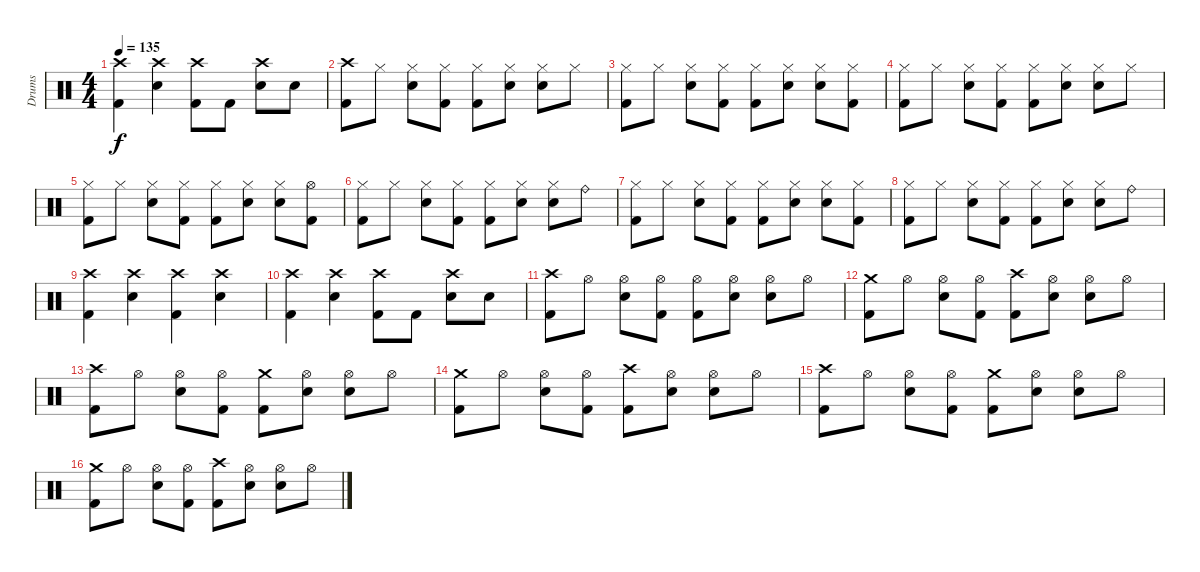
\track ("Drums" "Drums") {instrument percussion}
\staff {score}
\articulation defaults
\ts (4 4)
\tempo 135
\clef neutral
\ks c
("Crash high (hit)" "Kick (hit) 2").4{dy f} ("Crash high (hit)" "Snare (hit) 2").4 ("Crash high (hit)" "Kick (hit) 2").8 "Kick (hit) 2".8 ("Crash high (hit)" "Snare (hit) 2").8 "Snare (hit) 2".8 |
("Crash high (hit)" "Kick (hit) 2").8 "Hi-Hat (closed)".8 ("Hi-Hat (closed)" "Snare (hit) 2").8 ("Hi-Hat (closed)" "Kick (hit) 2").8 ("Hi-Hat (closed)" "Kick (hit) 2").8 ("Hi-Hat (closed)" "Snare (hit) 2").8 ("Hi-Hat (closed)" "Snare (hit) 2").8 "Hi-Hat (closed)".8 |
("Hi-Hat (closed)" "Kick (hit) 2").8 "Hi-Hat (closed)".8 ("Hi-Hat (closed)" "Snare (hit) 2").8 ("Hi-Hat (closed)" "Kick (hit) 2").8 ("Hi-Hat (closed)" "Kick (hit) 2").8 ("Hi-Hat (closed)" "Snare (hit) 2").8 ("Hi-Hat (closed)" "Snare (hit) 2").8 ("Hi-Hat (closed)" "Kick (hit) 2").8 |
("Hi-Hat (closed)" "Kick (hit) 2").8 "Hi-Hat (closed)".8 ("Hi-Hat (closed)" "Snare (hit) 2").8 ("Hi-Hat (closed)" "Kick (hit) 2").8 ("Hi-Hat (closed)" "Kick (hit) 2").8 ("Hi-Hat (closed)" "Snare (hit) 2").8 ("Hi-Hat (closed)" "Snare (hit) 2").8 "Hi-Hat (closed)".8 |
("Hi-Hat (closed)" "Kick (hit) 2").8 "Hi-Hat (closed)".8 ("Hi-Hat (closed)" "Snare (hit) 2").8 ("Hi-Hat (closed)" "Kick (hit) 2").8 ("Hi-Hat (closed)" "Kick (hit) 2").8 ("Hi-Hat (closed)" "Snare (hit) 2").8 ("Hi-Hat (closed)" "Snare (hit) 2").8 ("Hi-Hat (open)" "Kick (hit) 2").8 |
("Hi-Hat (closed)" "Kick (hit) 2").8 "Hi-Hat (closed)".8 ("Hi-Hat (closed)" "Snare (hit) 2").8 ("Hi-Hat (closed)" "Kick (hit) 2").8 ("Hi-Hat (closed)" "Kick (hit) 2").8 ("Hi-Hat (closed)" "Snare (hit) 2").8 ("Hi-Hat (closed)" "Snare (hit) 2").8 "Ride (bell)".8 |
("Hi-Hat (closed)" "Kick (hit) 2").8 "Hi-Hat (closed)".8 ("Hi-Hat (closed)" "Snare (hit) 2").8 ("Hi-Hat (closed)" "Kick (hit) 2").8 ("Hi-Hat (closed)" "Kick (hit) 2").8 ("Hi-Hat (closed)" "Snare (hit) 2").8 ("Hi-Hat (closed)" "Snare (hit) 2").8 ("Hi-Hat (closed)" "Kick (hit) 2").8 |
("Hi-Hat (closed)" "Kick (hit) 2").8 "Hi-Hat (closed)".8 ("Hi-Hat (closed)" "Snare (hit) 2").8 ("Hi-Hat (closed)" "Kick (hit) 2").8 ("Hi-Hat (closed)" "Kick (hit) 2").8 ("Hi-Hat (closed)" "Snare (hit) 2").8 ("Hi-Hat (closed)" "Snare (hit) 2").8 "Ride (bell)".8 |
("Crash high (hit)" "Kick (hit) 2").4 ("Crash high (hit)" "Snare (hit) 2").4 ("Crash high (hit)" "Kick (hit) 2").4 ("Crash high (hit)" "Snare (hit) 2").4 |
("Crash high (hit)" "Kick (hit) 2").4 ("Crash high (hit)" "Snare (hit) 2").4 ("Crash high (hit)" "Kick (hit) 2").8 "Kick (hit) 2".8 ("Crash high (hit)" "Snare (hit) 2").8 "Snare (hit) 2".8 |
("Crash high (hit)" "Kick (hit) 2").8 "Hi-Hat (open)".8 ("Hi-Hat (open)" "Snare (hit) 2").8 ("Hi-Hat (open)" "Kick (hit) 2").8 ("Hi-Hat (open)" "Kick (hit) 2").8 ("Hi-Hat (open)" "Snare (hit) 2").8 ("Hi-Hat (open)" "Snare (hit) 2").8 "Hi-Hat (open)".8 |
("Crash medium (hit)" "Kick (hit) 2").8 "Hi-Hat (open)".8 ("Hi-Hat (open)" "Snare (hit) 2").8 ("Hi-Hat (open)" "Kick (hit) 2").8 ("Crash high (hit)" "Kick (hit) 2").8 ("Hi-Hat (open)" "Snare (hit) 2").8 ("Hi-Hat (open)" "Snare (hit) 2").8 "Hi-Hat (open)".8 |
("Crash high (hit)" "Kick (hit) 2").8 "Hi-Hat (open)".8 ("Hi-Hat (open)" "Snare (hit) 2").8 ("Hi-Hat (open)" "Kick (hit) 2").8 ("Crash medium (hit)" "Kick (hit) 2").8 ("Hi-Hat (open)" "Snare (hit) 2").8 ("Hi-Hat (open)" "Snare (hit) 2").8 "Hi-Hat (open)".8 |
("Crash medium (hit)" "Kick (hit) 2").8 "Hi-Hat (open)".8 ("Hi-Hat (open)" "Snare (hit) 2").8 ("Hi-Hat (open)" "Kick (hit) 2").8 ("Crash high (hit)" "Kick (hit) 2").8 ("Hi-Hat (open)" "Snare (hit) 2").8 ("Hi-Hat (open)" "Snare (hit) 2").8 "Hi-Hat (open)".8 |
("Crash high (hit)" "Kick (hit) 2").8 "Hi-Hat (open)".8 ("Hi-Hat (open)" "Snare (hit) 2").8 ("Hi-Hat (open)" "Kick (hit) 2").8 ("Crash medium (hit)" "Kick (hit) 2").8 ("Hi-Hat (open)" "Snare (hit) 2").8 ("Hi-Hat (open)" "Snare (hit) 2").8 "Hi-Hat (open)".8 |
("Crash medium (hit)" "Kick (hit) 2").8 "Hi-Hat (open)".8 ("Hi-Hat (open)" "Snare (hit) 2").8 ("Hi-Hat (open)" "Kick (hit) 2").8 ("Crash high (hit)" "Kick (hit) 2").8 ("Hi-Hat (open)" "Snare (hit) 2").8 ("Hi-Hat (open)" "Snare (hit) 2").8 "Hi-Hat (open)".8
